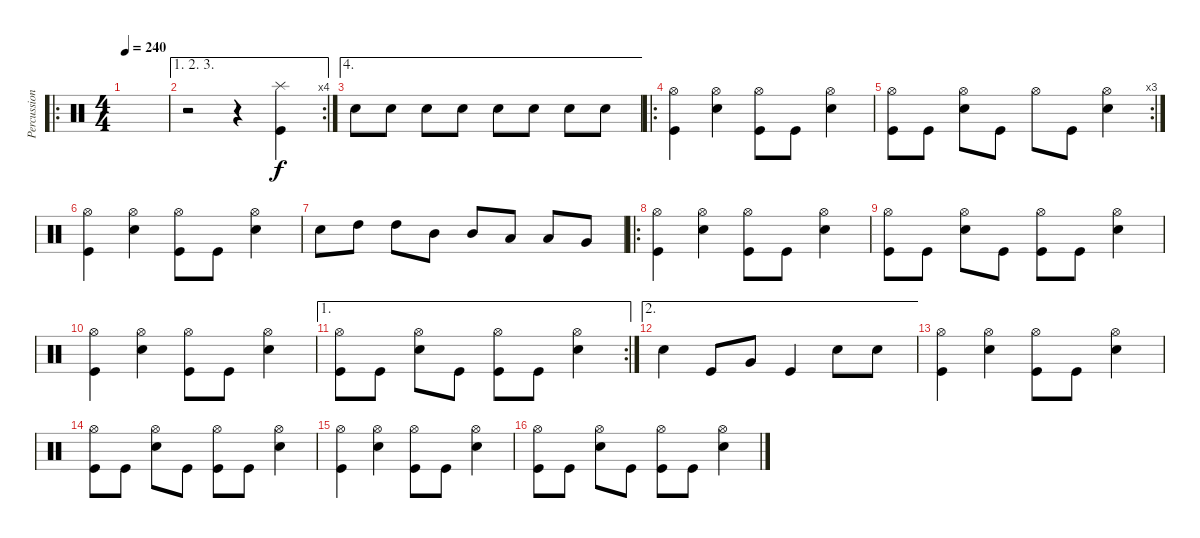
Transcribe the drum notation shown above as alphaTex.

\track ("Percussions" "Percussion") {instrument percussion}
\staff {score}
\articulation defaults
\ro
\ts (4 4)
\tempo 240
\clef neutral
\ks c
|
\ae (1 2 3)
\rc 4
r.2 r.4 ("Kick (hit)" "Splash (hit)").4 |
\ae 4 "Electric Snare (hit)".8 "Electric Snare (hit)".8 "Electric Snare (hit)".8 "Electric Snare (hit)".8 "Electric Snare (hit)".8 "Electric Snare (hit)".8 "Electric Snare (hit)".8 "Electric Snare (hit)".8
|
\ro
("Kick (hit)" "Hi-Hat (open)").4 ("Electric Snare (hit)" "Hi-Hat (open)").4 ("Kick (hit)" "Hi-Hat (open)").8 "Kick (hit)".8 ("Electric Snare (hit)" "Hi-Hat (open)").4 |
\rc 3
("Kick (hit)" "Hi-Hat (open)").8 "Kick (hit)".8 ("Electric Snare (hit)" "Hi-Hat (open)").8 "Kick (hit)".8 "Hi-Hat (open)".8 "Kick (hit)".8 ("Electric Snare (hit)" "Hi-Hat (open)").4 |
("Kick (hit)" "Hi-Hat (open)").4 ("Electric Snare (hit)" "Hi-Hat (open)").4 ("Kick (hit)" "Hi-Hat (open)").8 "Kick (hit)".8 ("Electric Snare (hit)" "Hi-Hat (open)").4 |
"Electric Snare (hit)".8 "High Tom (hit)".8 "High Tom (hit)".8 "Mid Tom (hit)".8 "Mid Tom (hit)".8 "Low Tom (hit)".8 "Low Tom (hit)".8 "Very Low Tom (hit)".8 |
\ro
("Kick (hit)" "Hi-Hat (open)").4 ("Electric Snare (hit)" "Hi-Hat (open)").4 ("Kick (hit)" "Hi-Hat (open)").8 "Kick (hit)".8 ("Electric Snare (hit)" "Hi-Hat (open)").4 |
("Kick (hit)" "Hi-Hat (open)").8 "Kick (hit)".8 ("Electric Snare (hit)" "Hi-Hat (open)").8 "Kick (hit)".8 ("Kick (hit)" "Hi-Hat (open)").8 "Kick (hit)".8 ("Electric Snare (hit)" "Hi-Hat (open)").4 |
("Kick (hit)" "Hi-Hat (open)").4 ("Electric Snare (hit)" "Hi-Hat (open)").4 ("Kick (hit)" "Hi-Hat (open)").8 "Kick (hit)".8 ("Electric Snare (hit)" "Hi-Hat (open)").4 |
\ae 1
\rc 2
("Kick (hit)" "Hi-Hat (open)").8 "Kick (hit)".8 ("Electric Snare (hit)" "Hi-Hat (open)").8 "Kick (hit)".8 ("Kick (hit)" "Hi-Hat (open)").8 "Kick (hit)".8 ("Electric Snare (hit)" "Hi-Hat (open)").4 |
\ae 2 "Electric Snare (hit)".4 "Kick (hit)".8 "Very Low Tom (hit)".8 "Kick (hit)".4 "Electric Snare (hit)".8 "Electric Snare (hit)".8
|
("Kick (hit)" "Hi-Hat (open)").4 ("Electric Snare (hit)" "Hi-Hat (open)").4 ("Kick (hit)" "Hi-Hat (open)").8 "Kick (hit)".8 ("Electric Snare (hit)" "Hi-Hat (open)").4 |
("Kick (hit)" "Hi-Hat (open)").8 "Kick (hit)".8 ("Electric Snare (hit)" "Hi-Hat (open)").8 "Kick (hit)".8 ("Kick (hit)" "Hi-Hat (open)").8 "Kick (hit)".8 ("Electric Snare (hit)" "Hi-Hat (open)").4 |
("Kick (hit)" "Hi-Hat (open)").4 ("Electric Snare (hit)" "Hi-Hat (open)").4 ("Kick (hit)" "Hi-Hat (open)").8 "Kick (hit)".8 ("Electric Snare (hit)" "Hi-Hat (open)").4 |
("Kick (hit)" "Hi-Hat (open)").8 "Kick (hit)".8 ("Electric Snare (hit)" "Hi-Hat (open)").8 "Kick (hit)".8 ("Kick (hit)" "Hi-Hat (open)").8 "Kick (hit)".8 ("Electric Snare (hit)" "Hi-Hat (open)").4
